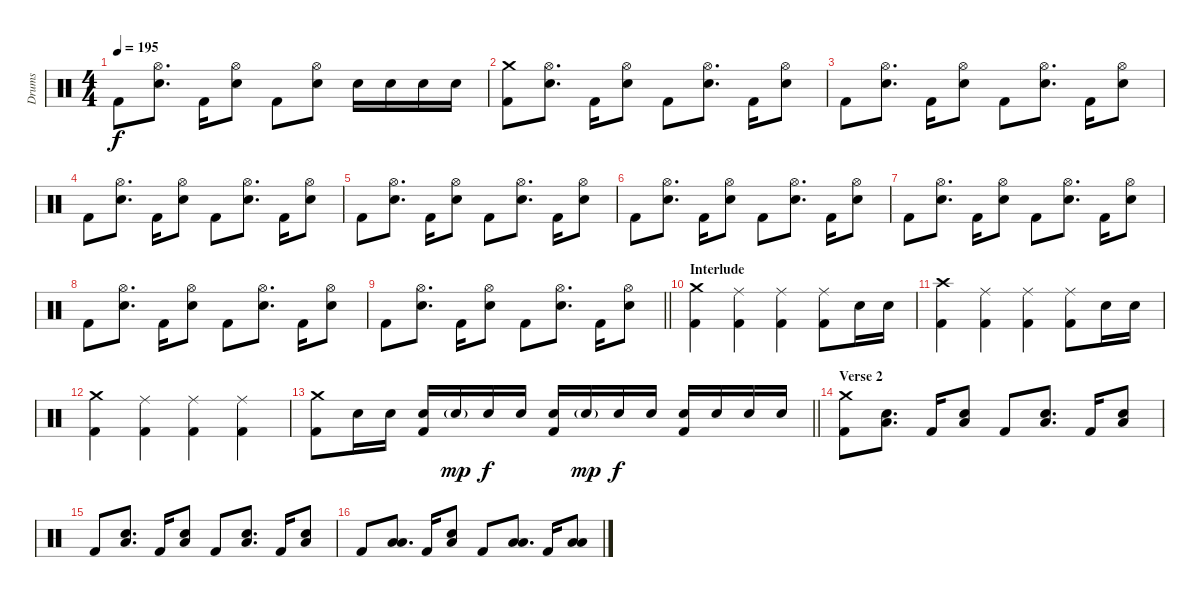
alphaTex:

\track ("Drums" "Drums") {instrument percussion}
\staff {score}
\articulation defaults
\ts (4 4)
\tempo 195
\clef neutral
\ks c "Kick (hit) 2".8{dy f}
("Hi-Hat (open)" "Electric Snare (hit)").8{d} "Kick (hit) 2".16 ("Hi-Hat (open)" "Electric Snare (hit)").8 "Kick (hit) 2".8 ("Hi-Hat (open)" "Electric Snare (hit)").8 "Electric Snare (hit)".16 "Electric Snare (hit)".16 "Electric Snare (hit)".16 "Electric Snare (hit)".16 |
("Crash medium (hit)" "Kick (hit) 2").8 ("Hi-Hat (open)" "Electric Snare (hit)").8{d} "Kick (hit) 2".16 ("Hi-Hat (open)" "Electric Snare (hit)").8 "Kick (hit) 2".8 ("Hi-Hat (open)" "Electric Snare (hit)").8{d} "Kick (hit) 2".16 ("Hi-Hat (open)" "Electric Snare (hit)").8 |
"Kick (hit) 2".8 ("Hi-Hat (open)" "Electric Snare (hit)").8{d} "Kick (hit) 2".16 ("Hi-Hat (open)" "Electric Snare (hit)").8 "Kick (hit) 2".8 ("Hi-Hat (open)" "Electric Snare (hit)").8{d} "Kick (hit) 2".16 ("Hi-Hat (open)" "Electric Snare (hit)").8 |
"Kick (hit) 2".8 ("Hi-Hat (open)" "Electric Snare (hit)").8{d} "Kick (hit) 2".16 ("Hi-Hat (open)" "Electric Snare (hit)").8 "Kick (hit) 2".8 ("Hi-Hat (open)" "Electric Snare (hit)").8{d} "Kick (hit) 2".16 ("Hi-Hat (open)" "Electric Snare (hit)").8 |
"Kick (hit) 2".8 ("Hi-Hat (open)" "Electric Snare (hit)").8{d} "Kick (hit) 2".16 ("Hi-Hat (open)" "Electric Snare (hit)").8 "Kick (hit) 2".8 ("Hi-Hat (open)" "Electric Snare (hit)").8{d} "Kick (hit) 2".16 ("Hi-Hat (open)" "Electric Snare (hit)").8 |
"Kick (hit) 2".8 ("Hi-Hat (open)" "Electric Snare (hit)").8{d} "Kick (hit) 2".16 ("Hi-Hat (open)" "Electric Snare (hit)").8 "Kick (hit) 2".8 ("Hi-Hat (open)" "Electric Snare (hit)").8{d} "Kick (hit) 2".16 ("Hi-Hat (open)" "Electric Snare (hit)").8 |
"Kick (hit) 2".8 ("Hi-Hat (open)" "Electric Snare (hit)").8{d} "Kick (hit) 2".16 ("Hi-Hat (open)" "Electric Snare (hit)").8 "Kick (hit) 2".8 ("Hi-Hat (open)" "Electric Snare (hit)").8{d} "Kick (hit) 2".16 ("Hi-Hat (open)" "Electric Snare (hit)").8 |
"Kick (hit) 2".8 ("Hi-Hat (open)" "Electric Snare (hit)").8{d} "Kick (hit) 2".16 ("Hi-Hat (open)" "Electric Snare (hit)").8 "Kick (hit) 2".8 ("Hi-Hat (open)" "Electric Snare (hit)").8{d} "Kick (hit) 2".16 ("Hi-Hat (open)" "Electric Snare (hit)").8 |
\barLineRight lightlight "Kick (hit) 2".8
("Hi-Hat (open)" "Electric Snare (hit)").8{d} "Kick (hit) 2".16 ("Hi-Hat (open)" "Electric Snare (hit)").8 "Kick (hit) 2".8 ("Hi-Hat (open)" "Electric Snare (hit)").8{d} "Kick (hit) 2".16 ("Hi-Hat (open)" "Electric Snare (hit)").8 |
\section ("" "Interlude")
("Crash medium (hit)" "Kick (hit) 2").4 ("Ride (middle)" "Kick (hit) 2").4 ("Ride (middle)" "Kick (hit) 2").4 ("Ride (middle)" "Kick (hit) 2").8 "Electric Snare (hit)".16 "Electric Snare (hit)".16 |
("Crash high (hit)" "Kick (hit) 2").4 ("Ride (middle)" "Kick (hit) 2").4 ("Ride (middle)" "Kick (hit) 2").4 ("Ride (middle)" "Kick (hit) 2").8 "Electric Snare (hit)".16 "Electric Snare (hit)".16 |
("Crash medium (hit)" "Kick (hit) 2").4 ("Ride (middle)" "Kick (hit) 2").4 ("Ride (middle)" "Kick (hit) 2").4 ("Ride (middle)" "Kick (hit) 2").4 |
\barLineRight lightlight
("Crash medium (hit)" "Kick (hit) 2").8 "Electric Snare (hit)".16 "Electric Snare (hit)".16 ("Electric Snare (hit)" "Kick (hit) 2").16 "Electric Snare (hit)"{g}.16{dy mp} "Electric Snare (hit)".16{dy f} "Electric Snare (hit)".16 ("Electric Snare (hit)" "Kick (hit) 2").16 "Electric Snare (hit)"{g}.16{dy mp} "Electric Snare (hit)".16{dy f} "Electric Snare (hit)".16 ("Electric Snare (hit)" "Kick (hit) 2").16 "Electric Snare (hit)".16 "Electric Snare (hit)".16 "Electric Snare (hit)".16 |
\section ("" "Verse 2")
("Crash medium (hit)" "Kick (hit) 2").8 ("Low Floor Tom (hit)" "Electric Snare (hit)").8{d} "Kick (hit) 2".16 ("Low Floor Tom (hit)" "Electric Snare (hit)").8 "Kick (hit) 2".8 ("Low Floor Tom (hit)" "Electric Snare (hit)").8{d} "Kick (hit) 2".16 ("Low Floor Tom (hit)" "Electric Snare (hit)").8 |
"Kick (hit) 2".8 ("Low Floor Tom (hit)" "Electric Snare (hit)").8{d} "Kick (hit) 2".16 ("Low Floor Tom (hit)" "Electric Snare (hit)").8 "Kick (hit) 2".8 ("Low Floor Tom (hit)" "Electric Snare (hit)").8{d} "Kick (hit) 2".16 ("Low Floor Tom (hit)" "Electric Snare (hit)").8 |
"Kick (hit) 2".8 ("Low Floor Tom (hit)" "Low Tom (hit)").8{d} "Kick (hit) 2".16 ("Low Floor Tom (hit)" "Electric Snare (hit)").8 "Kick (hit) 2".8 ("Low Floor Tom (hit)" "Low Tom (hit)").8{d} "Kick (hit) 2".16 ("Low Floor Tom (hit)" "Low Tom (hit)").8
